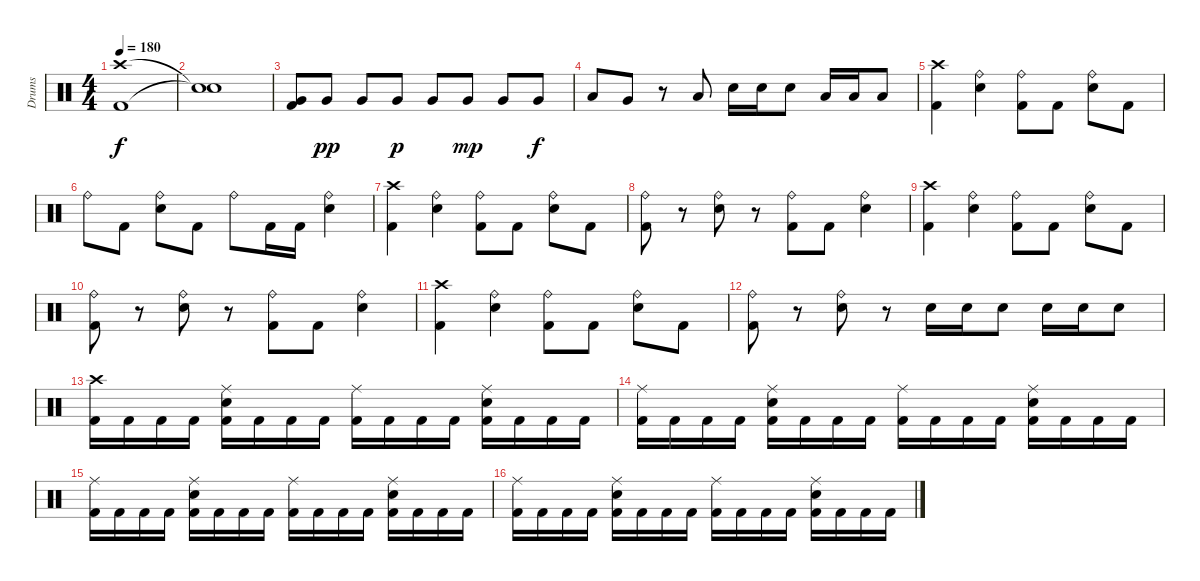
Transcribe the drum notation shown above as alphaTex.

\track ("Drums " "Drums ") {instrument percussion}
\staff {score}
\articulation defaults
\ts (4 4)
\tempo 180
\clef neutral
\ks c
("Kick (hit) 2" "Crash high (hit)").1{dy f} |
("Snare (hit)"{t} "Snare (hit)"{t}).1 |
("Kick (hit) 2" "Very Low Tom (hit)").8 "Very Low Tom (hit)".8{dy pp} "Very Low Tom (hit)".8 "Very Low Tom (hit)".8{dy p} "Very Low Tom (hit)".8 "Very Low Tom (hit)".8{dy mp} "Very Low Tom (hit)".8 "Very Low Tom (hit)".8{dy f} |
"Low Tom (hit)".8 "Very Low Tom (hit)".8 r.8 "Low Floor Tom (hit)".8 "Electric Snare (hit)".16 "Electric Snare (hit)".16 "Electric Snare (hit)".8 "Low Tom (hit)".16 "Low Tom (hit)".16 "Low Tom (hit)".8 |
("Kick (hit) 2" "Crash high (hit)").4 ("Ride (bell)" "Electric Snare (hit)").4 ("Kick (hit) 2" "Ride (bell)").8 "Kick (hit) 2".8 ("Ride (bell)" "Electric Snare (hit)").8 "Kick (hit) 2".8 |
"Ride (bell)".8 "Kick (hit) 2".8 ("Ride (bell)" "Electric Snare (hit)").8 "Kick (hit) 2".8 "Ride (bell)".8 "Kick (hit) 2".16 "Kick (hit) 2".16 ("Ride (bell)" "Electric Snare (hit)").4 |
("Kick (hit) 2" "Crash high (hit)").4 ("Ride (bell)" "Electric Snare (hit)").4 ("Kick (hit) 2" "Ride (bell)").8 "Kick (hit) 2".8 ("Ride (bell)" "Electric Snare (hit)").8 "Kick (hit) 2".8 |
("Kick (hit) 2" "Ride (bell)").8 r.8 ("Ride (bell)" "Electric Snare (hit)").8 r.8 ("Kick (hit) 2" "Ride (bell)").8 "Kick (hit) 2".8 ("Ride (bell)" "Electric Snare (hit)").4 |
("Kick (hit) 2" "Crash high (hit)").4 ("Ride (bell)" "Electric Snare (hit)").4 ("Kick (hit) 2" "Ride (bell)").8 "Kick (hit) 2".8 ("Ride (bell)" "Electric Snare (hit)").8 "Kick (hit) 2".8 |
("Kick (hit) 2" "Ride (bell)").8 r.8 ("Ride (bell)" "Electric Snare (hit)").8 r.8 ("Kick (hit) 2" "Ride (bell)").8 "Kick (hit) 2".8 ("Ride (bell)" "Electric Snare (hit)").4 |
("Kick (hit) 2" "Crash high (hit)").4 ("Ride (bell)" "Electric Snare (hit)").4 ("Kick (hit) 2" "Ride (bell)").8 "Kick (hit) 2".8 ("Ride (bell)" "Electric Snare (hit)").8 "Kick (hit) 2".8 |
("Kick (hit) 2" "Ride (bell)").8 r.8 ("Ride (bell)" "Electric Snare (hit)").8 r.8 "Electric Snare (hit)".16 "Electric Snare (hit)".16 "Electric Snare (hit)".8 "Electric Snare (hit)".16 "Electric Snare (hit)".16 "Electric Snare (hit)".8 |
("Kick (hit) 2" "Crash high (hit)").16 "Kick (hit) 2".16 "Kick (hit) 2".16 "Kick (hit) 2".16 ("Kick (hit) 2" "Ride (middle)" "Electric Snare (hit)").16 "Kick (hit) 2".16 "Kick (hit) 2".16 "Kick (hit) 2".16 ("Kick (hit) 2" "Ride (middle)").16 "Kick (hit) 2".16 "Kick (hit) 2".16 "Kick (hit) 2".16 ("Kick (hit) 2" "Ride (middle)" "Electric Snare (hit)").16 "Kick (hit) 2".16 "Kick (hit) 2".16 "Kick (hit) 2".16 |
("Kick (hit) 2" "Ride (middle)").16 "Kick (hit) 2".16 "Kick (hit) 2".16 "Kick (hit) 2".16 ("Kick (hit) 2" "Ride (middle)" "Electric Snare (hit)").16 "Kick (hit) 2".16 "Kick (hit) 2".16 "Kick (hit) 2".16 ("Kick (hit) 2" "Ride (middle)").16 "Kick (hit) 2".16 "Kick (hit) 2".16 "Kick (hit) 2".16 ("Kick (hit) 2" "Ride (middle)" "Electric Snare (hit)").16 "Kick (hit) 2".16 "Kick (hit) 2".16 "Kick (hit) 2".16 |
("Kick (hit) 2" "Ride (middle)").16 "Kick (hit) 2".16 "Kick (hit) 2".16 "Kick (hit) 2".16 ("Kick (hit) 2" "Ride (middle)" "Electric Snare (hit)").16 "Kick (hit) 2".16 "Kick (hit) 2".16 "Kick (hit) 2".16 ("Kick (hit) 2" "Ride (middle)").16 "Kick (hit) 2".16 "Kick (hit) 2".16 "Kick (hit) 2".16 ("Kick (hit) 2" "Ride (middle)" "Electric Snare (hit)").16 "Kick (hit) 2".16 "Kick (hit) 2".16 "Kick (hit) 2".16 |
("Kick (hit) 2" "Ride (middle)").16 "Kick (hit) 2".16 "Kick (hit) 2".16 "Kick (hit) 2".16 ("Kick (hit) 2" "Ride (middle)" "Electric Snare (hit)").16 "Kick (hit) 2".16 "Kick (hit) 2".16 "Kick (hit) 2".16 ("Kick (hit) 2" "Ride (middle)").16 "Kick (hit) 2".16 "Kick (hit) 2".16 "Kick (hit) 2".16 ("Kick (hit) 2" "Ride (middle)" "Electric Snare (hit)").16 "Kick (hit) 2".16 "Kick (hit) 2".16 "Kick (hit) 2".16
